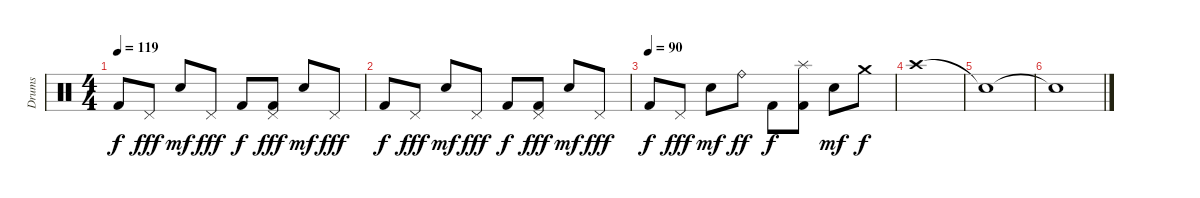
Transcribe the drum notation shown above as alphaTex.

\track ("Drums" "Drums") {instrument percussion}
\staff {score}
\articulation defaults
\ts (4 4)
\tempo 119
\clef neutral
\ks c "Kick (hit) 2".8{dy f} "Pedal Hi-Hat (hit)".8{dy fff} "Electric Snare (hit)".8{dy mf} "Pedal Hi-Hat (hit)".8{dy fff} "Kick (hit) 2".8{dy f}
("Pedal Hi-Hat (hit)" "Kick (hit) 2").8{dy fff} "Electric Snare (hit)".8{dy mf} "Pedal Hi-Hat (hit)".8{dy fff} |
"Kick (hit) 2".8{dy f} "Pedal Hi-Hat (hit)".8{dy fff} "Electric Snare (hit)".8{dy mf} "Pedal Hi-Hat (hit)".8{dy fff} "Kick (hit) 2".8{dy f} ("Pedal Hi-Hat (hit)" "Kick (hit) 2").8{dy fff} "Electric Snare (hit)".8{dy mf} "Pedal Hi-Hat (hit)".8{dy fff} |
\tempo (90)
"Kick (hit) 2".8{dy f} "Pedal Hi-Hat (hit)".8{dy fff} "Electric Snare (hit)".8{dy mf} "Ride (bell)".8{dy ff} "Kick (hit) 2".8{dy f} ("Splash (hit)" "Kick (hit) 2").8 "Electric Snare (hit)".8{dy mf} "Crash medium (hit)".8{dy f} |
"Crash high (hit)".1 |
"Snare (hit)"{t}.1 |
"Snare (hit)"{t}.1
